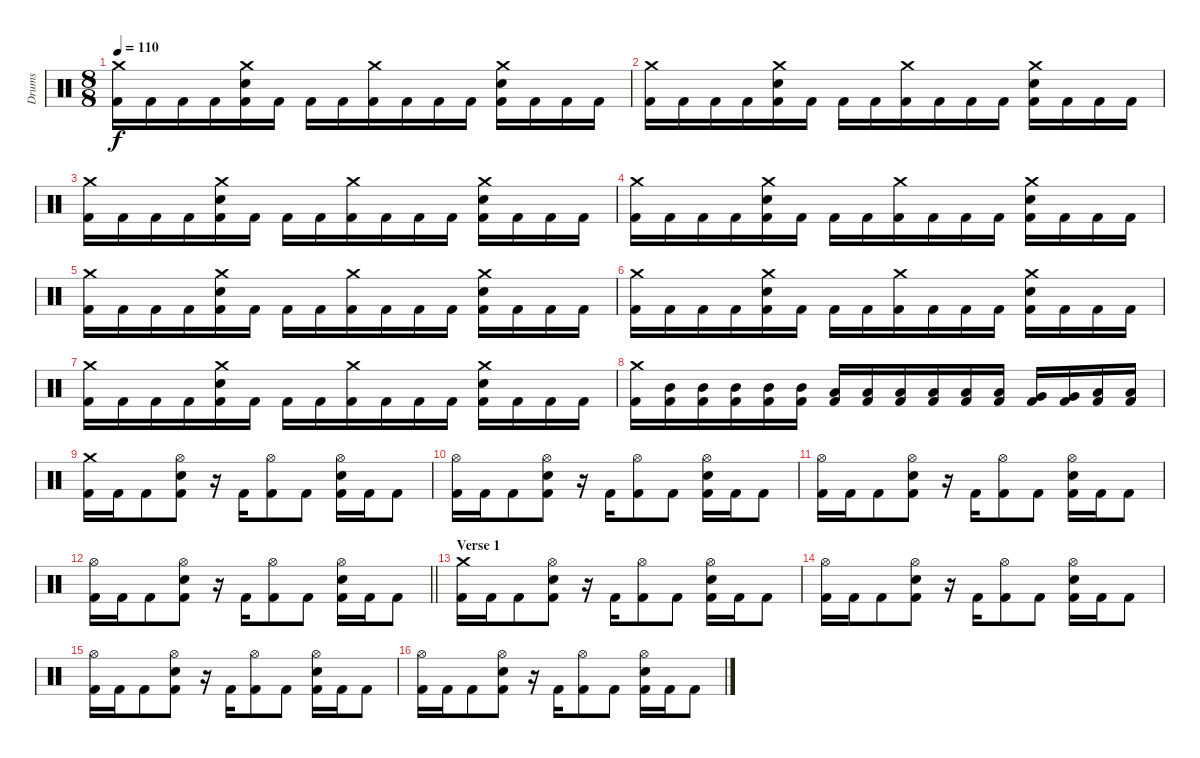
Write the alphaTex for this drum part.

\track ("Drums" "Drums") {instrument percussion}
\staff {score}
\articulation defaults
\ts (8 8)
\tempo 110
\clef neutral
\ks c
("Crash medium (hit)" "Kick (hit) 2").16{dy f} "Kick (hit) 2".16 "Kick (hit) 2".16 "Kick (hit) 2".16 ("Crash medium (hit)" "Electric Snare (hit)" "Kick (hit) 2").16 "Kick (hit) 2".16 "Kick (hit) 2".16 "Kick (hit) 2".16 ("Crash medium (hit)" "Kick (hit) 2").16 "Kick (hit) 2".16 "Kick (hit) 2".16 "Kick (hit) 2".16 ("Crash medium (hit)" "Electric Snare (hit)" "Kick (hit) 2").16 "Kick (hit) 2".16 "Kick (hit) 2".16 "Kick (hit) 2".16 |
("Crash medium (hit)" "Kick (hit) 2").16 "Kick (hit) 2".16 "Kick (hit) 2".16 "Kick (hit) 2".16 ("Crash medium (hit)" "Electric Snare (hit)" "Kick (hit) 2").16 "Kick (hit) 2".16 "Kick (hit) 2".16 "Kick (hit) 2".16 ("Crash medium (hit)" "Kick (hit) 2").16 "Kick (hit) 2".16 "Kick (hit) 2".16 "Kick (hit) 2".16 ("Crash medium (hit)" "Electric Snare (hit)" "Kick (hit) 2").16 "Kick (hit) 2".16 "Kick (hit) 2".16 "Kick (hit) 2".16 |
("Crash medium (hit)" "Kick (hit) 2").16 "Kick (hit) 2".16 "Kick (hit) 2".16 "Kick (hit) 2".16 ("Crash medium (hit)" "Electric Snare (hit)" "Kick (hit) 2").16 "Kick (hit) 2".16 "Kick (hit) 2".16 "Kick (hit) 2".16 ("Crash medium (hit)" "Kick (hit) 2").16 "Kick (hit) 2".16 "Kick (hit) 2".16 "Kick (hit) 2".16 ("Crash medium (hit)" "Electric Snare (hit)" "Kick (hit) 2").16 "Kick (hit) 2".16 "Kick (hit) 2".16 "Kick (hit) 2".16 |
("Crash medium (hit)" "Kick (hit) 2").16 "Kick (hit) 2".16 "Kick (hit) 2".16 "Kick (hit) 2".16 ("Crash medium (hit)" "Electric Snare (hit)" "Kick (hit) 2").16 "Kick (hit) 2".16 "Kick (hit) 2".16 "Kick (hit) 2".16 ("Crash medium (hit)" "Kick (hit) 2").16 "Kick (hit) 2".16 "Kick (hit) 2".16 "Kick (hit) 2".16 ("Crash medium (hit)" "Electric Snare (hit)" "Kick (hit) 2").16 "Kick (hit) 2".16 "Kick (hit) 2".16 "Kick (hit) 2".16 |
("Crash medium (hit)" "Kick (hit) 2").16 "Kick (hit) 2".16 "Kick (hit) 2".16 "Kick (hit) 2".16 ("Crash medium (hit)" "Electric Snare (hit)" "Kick (hit) 2").16 "Kick (hit) 2".16 "Kick (hit) 2".16 "Kick (hit) 2".16 ("Crash medium (hit)" "Kick (hit) 2").16 "Kick (hit) 2".16 "Kick (hit) 2".16 "Kick (hit) 2".16 ("Crash medium (hit)" "Electric Snare (hit)" "Kick (hit) 2").16 "Kick (hit) 2".16 "Kick (hit) 2".16 "Kick (hit) 2".16 |
("Crash medium (hit)" "Kick (hit) 2").16 "Kick (hit) 2".16 "Kick (hit) 2".16 "Kick (hit) 2".16 ("Crash medium (hit)" "Electric Snare (hit)" "Kick (hit) 2").16 "Kick (hit) 2".16 "Kick (hit) 2".16 "Kick (hit) 2".16 ("Crash medium (hit)" "Kick (hit) 2").16 "Kick (hit) 2".16 "Kick (hit) 2".16 "Kick (hit) 2".16 ("Crash medium (hit)" "Electric Snare (hit)" "Kick (hit) 2").16 "Kick (hit) 2".16 "Kick (hit) 2".16 "Kick (hit) 2".16 |
("Crash medium (hit)" "Kick (hit) 2").16 "Kick (hit) 2".16 "Kick (hit) 2".16 "Kick (hit) 2".16 ("Crash medium (hit)" "Electric Snare (hit)" "Kick (hit) 2").16 "Kick (hit) 2".16 "Kick (hit) 2".16 "Kick (hit) 2".16 ("Crash medium (hit)" "Kick (hit) 2").16 "Kick (hit) 2".16 "Kick (hit) 2".16 "Kick (hit) 2".16 ("Crash medium (hit)" "Electric Snare (hit)" "Kick (hit) 2").16 "Kick (hit) 2".16 "Kick (hit) 2".16 "Kick (hit) 2".16 |
("Crash medium (hit)" "Kick (hit) 2").16 ("Mid Tom (hit)" "Kick (hit) 2").16 ("Mid Tom (hit)" "Kick (hit) 2").16 ("Mid Tom (hit)" "Kick (hit) 2").16 ("Mid Tom (hit)" "Kick (hit) 2").16 ("Mid Tom (hit)" "Kick (hit) 2").16 ("Low Tom (hit)" "Kick (hit) 2").16 ("Low Tom (hit)" "Kick (hit) 2").16 ("Low Tom (hit)" "Kick (hit) 2").16 ("Low Tom (hit)" "Kick (hit) 2").16 ("Low Tom (hit)" "Kick (hit) 2").16 ("Low Tom (hit)" "Kick (hit) 2").16 ("Very Low Tom (hit)" "Kick (hit) 2").16 ("Very Low Tom (hit)" "Kick (hit) 2").16 ("Low Floor Tom (hit)" "Kick (hit) 2").16 ("Low Floor Tom (hit)" "Kick (hit) 2").16 |
("Crash medium (hit)" "Kick (hit) 2").16 "Kick (hit) 2".16 "Kick (hit) 2".8 ("Hi-Hat (open)" "Electric Snare (hit)" "Kick (hit) 2").8 r.16 "Kick (hit) 2".16 ("Hi-Hat (open)" "Kick (hit) 2").8 "Kick (hit) 2".8 ("Hi-Hat (open)" "Electric Snare (hit)" "Kick (hit) 2").16 "Kick (hit) 2".16 "Kick (hit) 2".8 |
("Hi-Hat (open)" "Kick (hit) 2").16 "Kick (hit) 2".16 "Kick (hit) 2".8 ("Hi-Hat (open)" "Electric Snare (hit)" "Kick (hit) 2").8 r.16 "Kick (hit) 2".16 ("Hi-Hat (open)" "Kick (hit) 2").8 "Kick (hit) 2".8 ("Hi-Hat (open)" "Electric Snare (hit)" "Kick (hit) 2").16 "Kick (hit) 2".16 "Kick (hit) 2".8 |
("Hi-Hat (open)" "Kick (hit) 2").16 "Kick (hit) 2".16 "Kick (hit) 2".8 ("Hi-Hat (open)" "Electric Snare (hit)" "Kick (hit) 2").8 r.16 "Kick (hit) 2".16 ("Hi-Hat (open)" "Kick (hit) 2").8 "Kick (hit) 2".8 ("Hi-Hat (open)" "Electric Snare (hit)" "Kick (hit) 2").16 "Kick (hit) 2".16 "Kick (hit) 2".8 |
\barLineRight lightlight
("Hi-Hat (open)" "Kick (hit) 2").16 "Kick (hit) 2".16 "Kick (hit) 2".8 ("Hi-Hat (open)" "Electric Snare (hit)" "Kick (hit) 2").8 r.16 "Kick (hit) 2".16 ("Hi-Hat (open)" "Kick (hit) 2").8 "Kick (hit) 2".8 ("Hi-Hat (open)" "Electric Snare (hit)" "Kick (hit) 2").16 "Kick (hit) 2".16 "Kick (hit) 2".8 |
\section ("" "Verse 1")
("Crash medium (hit)" "Kick (hit) 2").16 "Kick (hit) 2".16 "Kick (hit) 2".8 ("Hi-Hat (open)" "Electric Snare (hit)" "Kick (hit) 2").8 r.16 "Kick (hit) 2".16 ("Hi-Hat (open)" "Kick (hit) 2").8 "Kick (hit) 2".8 ("Hi-Hat (open)" "Electric Snare (hit)" "Kick (hit) 2").16 "Kick (hit) 2".16 "Kick (hit) 2".8 |
("Hi-Hat (open)" "Kick (hit) 2").16 "Kick (hit) 2".16 "Kick (hit) 2".8 ("Hi-Hat (open)" "Electric Snare (hit)" "Kick (hit) 2").8 r.16 "Kick (hit) 2".16 ("Hi-Hat (open)" "Kick (hit) 2").8 "Kick (hit) 2".8 ("Hi-Hat (open)" "Electric Snare (hit)" "Kick (hit) 2").16 "Kick (hit) 2".16 "Kick (hit) 2".8 |
("Hi-Hat (open)" "Kick (hit) 2").16 "Kick (hit) 2".16 "Kick (hit) 2".8 ("Hi-Hat (open)" "Electric Snare (hit)" "Kick (hit) 2").8 r.16 "Kick (hit) 2".16 ("Hi-Hat (open)" "Kick (hit) 2").8 "Kick (hit) 2".8 ("Hi-Hat (open)" "Electric Snare (hit)" "Kick (hit) 2").16 "Kick (hit) 2".16 "Kick (hit) 2".8 |
("Hi-Hat (open)" "Kick (hit) 2").16 "Kick (hit) 2".16 "Kick (hit) 2".8 ("Hi-Hat (open)" "Electric Snare (hit)" "Kick (hit) 2").8 r.16 "Kick (hit) 2".16 ("Hi-Hat (open)" "Kick (hit) 2").8 "Kick (hit) 2".8 ("Hi-Hat (open)" "Electric Snare (hit)" "Kick (hit) 2").16 "Kick (hit) 2".16 "Kick (hit) 2".8
